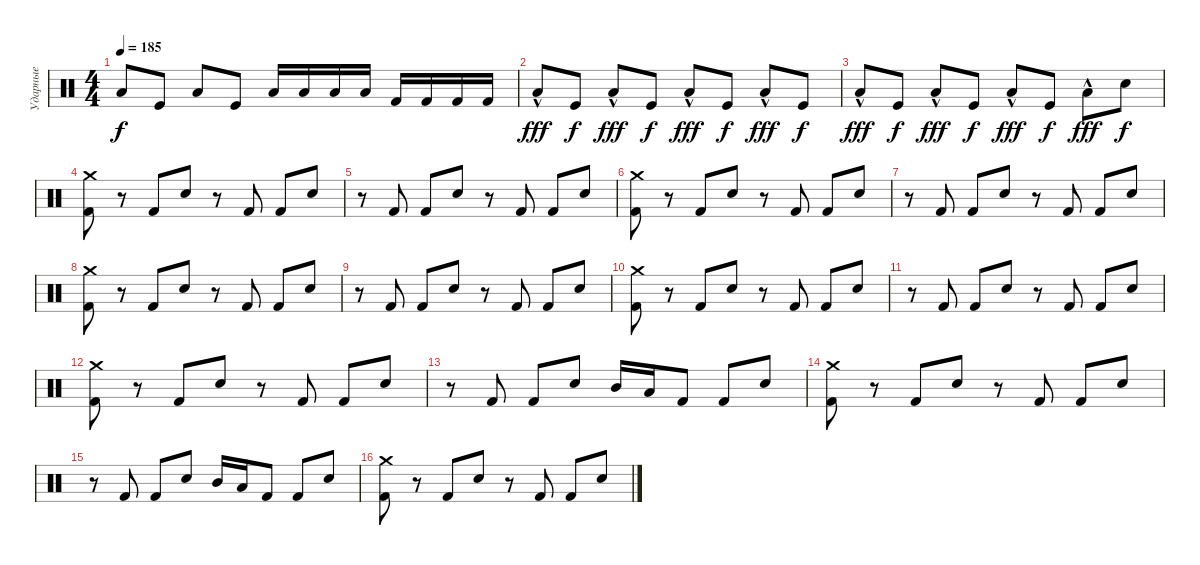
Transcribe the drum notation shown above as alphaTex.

\track ("Ударные" "Ударные") {instrument percussion}
\staff {score}
\articulation defaults
\ts (4 4)
\tempo 185
\clef neutral
\ks c "Low Tom (hit)".8{dy f} "Kick (hit)".8 "Low Tom (hit)".8 "Kick (hit)".8 "Low Tom (hit)".16 "Low Tom (hit)".16 "Low Tom (hit)".16 "Low Tom (hit)".16 "Kick (hit) 2".16 "Kick (hit) 2".16 "Kick (hit) 2".16 "Kick (hit) 2".16
|
"Low Tom (hit)"{hac}.8{dy fff} "Kick (hit)".8{dy f} "Low Tom (hit)"{hac}.8{dy fff} "Kick (hit)".8{dy f} "Low Tom (hit)"{hac}.8{dy fff} "Kick (hit)".8{dy f} "Low Tom (hit)"{hac}.8{dy fff} "Kick (hit)".8{dy f} |
"Low Tom (hit)"{hac}.8{dy fff} "Kick (hit)".8{dy f} "Low Tom (hit)"{hac}.8{dy fff} "Kick (hit)".8{dy f} "Low Tom (hit)"{hac}.8{dy fff} "Kick (hit)".8{dy f} "Low Tom (hit)"{hac}.8{dy fff} "Electric Snare (hit)".8{dy f} |
("Crash medium (hit)" "Kick (hit) 2").8 r.8 "Kick (hit) 2".8 "Electric Snare (hit)".8 r.8 "Kick (hit) 2".8 "Kick (hit) 2".8 "Electric Snare (hit)".8 |
r.8 "Kick (hit) 2".8 "Kick (hit) 2".8 "Electric Snare (hit)".8 r.8 "Kick (hit) 2".8 "Kick (hit) 2".8 "Electric Snare (hit)".8 |
("Crash medium (hit)" "Kick (hit) 2").8 r.8 "Kick (hit) 2".8 "Electric Snare (hit)".8 r.8 "Kick (hit) 2".8 "Kick (hit) 2".8 "Electric Snare (hit)".8 |
r.8 "Kick (hit) 2".8 "Kick (hit) 2".8 "Electric Snare (hit)".8 r.8 "Kick (hit) 2".8 "Kick (hit) 2".8 "Electric Snare (hit)".8 |
("Crash medium (hit)" "Kick (hit) 2").8 r.8 "Kick (hit) 2".8 "Electric Snare (hit)".8 r.8 "Kick (hit) 2".8 "Kick (hit) 2".8 "Electric Snare (hit)".8 |
r.8 "Kick (hit) 2".8 "Kick (hit) 2".8 "Electric Snare (hit)".8 r.8 "Kick (hit) 2".8 "Kick (hit) 2".8 "Electric Snare (hit)".8 |
("Crash medium (hit)" "Kick (hit) 2").8 r.8 "Kick (hit) 2".8 "Electric Snare (hit)".8 r.8 "Kick (hit) 2".8 "Kick (hit) 2".8 "Electric Snare (hit)".8 |
r.8 "Kick (hit) 2".8 "Kick (hit) 2".8 "Electric Snare (hit)".8 r.8 "Kick (hit) 2".8 "Kick (hit) 2".8 "Electric Snare (hit)".8 |
("Crash medium (hit)" "Kick (hit) 2").8 r.8 "Kick (hit) 2".8 "Electric Snare (hit)".8 r.8 "Kick (hit) 2".8 "Kick (hit) 2".8 "Electric Snare (hit)".8 |
r.8 "Kick (hit) 2".8 "Kick (hit) 2".8 "Electric Snare (hit)".8 "Mid Tom (hit)".16 "Low Tom (hit)".16 "Kick (hit) 2".8 "Kick (hit) 2".8 "Electric Snare (hit)".8 |
("Crash medium (hit)" "Kick (hit) 2").8 r.8 "Kick (hit) 2".8 "Electric Snare (hit)".8 r.8 "Kick (hit) 2".8 "Kick (hit) 2".8 "Electric Snare (hit)".8 |
r.8 "Kick (hit) 2".8 "Kick (hit) 2".8 "Electric Snare (hit)".8 "Mid Tom (hit)".16 "Low Tom (hit)".16 "Kick (hit) 2".8 "Kick (hit) 2".8 "Electric Snare (hit)".8 |
("Crash medium (hit)" "Kick (hit) 2").8 r.8 "Kick (hit) 2".8 "Electric Snare (hit)".8 r.8 "Kick (hit) 2".8 "Kick (hit) 2".8 "Electric Snare (hit)".8
